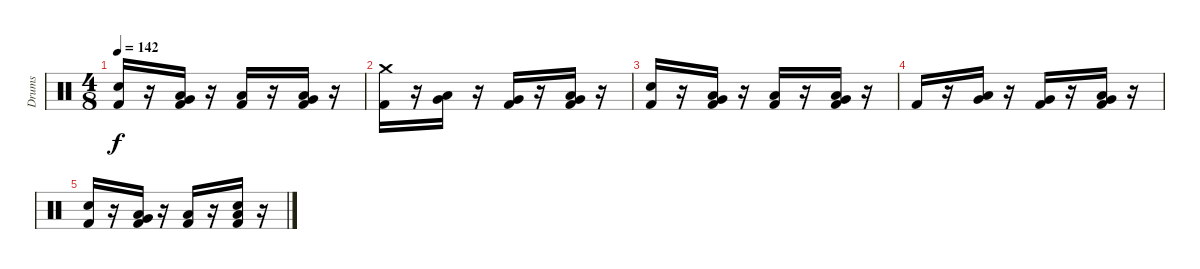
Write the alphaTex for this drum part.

\track ("Drums" "Drums") {instrument percussion}
\staff {score}
\articulation defaults
\ts (4 8)
\tempo 142
\clef neutral
\ks c
("Electric Snare (hit)" "Kick (hit) 2").16{dy f} r.16 ("Kick (hit) 2" "Low Floor Tom (hit)" "Very Low Tom (hit)").16 r.16 ("Kick (hit) 2" "Low Floor Tom (hit)").16 r.16 ("Kick (hit) 2" "Low Floor Tom (hit)" "Very Low Tom (hit)").16 r.16 |
("Kick (hit) 2" "Crash medium (hit)").16 r.16 ("Low Tom (hit)" "Very Low Tom (hit)").16 r.16 ("Kick (hit) 2" "Very Low Tom (hit)").16 r.16 ("Kick (hit) 2" "Very Low Tom (hit)" "Low Floor Tom (hit)").16 r.16 |
("Electric Snare (hit)" "Kick (hit) 2").16 r.16 ("Kick (hit) 2" "Low Floor Tom (hit)" "Very Low Tom (hit)").16 r.16 ("Kick (hit) 2" "Low Floor Tom (hit)").16 r.16 ("Kick (hit) 2" "Low Floor Tom (hit)" "Very Low Tom (hit)").16 r.16 |
"Kick (hit) 2".16 r.16 ("Low Tom (hit)" "Very Low Tom (hit)").16 r.16 ("Kick (hit) 2" "Very Low Tom (hit)").16 r.16 ("Kick (hit) 2" "Very Low Tom (hit)" "Low Floor Tom (hit)").16 r.16 |
("Electric Snare (hit)" "Kick (hit) 2").16 r.16 ("Kick (hit) 2" "Low Floor Tom (hit)" "Very Low Tom (hit)").16 r.16 ("Kick (hit) 2" "Low Floor Tom (hit)").16 r.16 ("Kick (hit) 2" "Low Floor Tom (hit)" "Electric Snare (hit)").16 r.16
